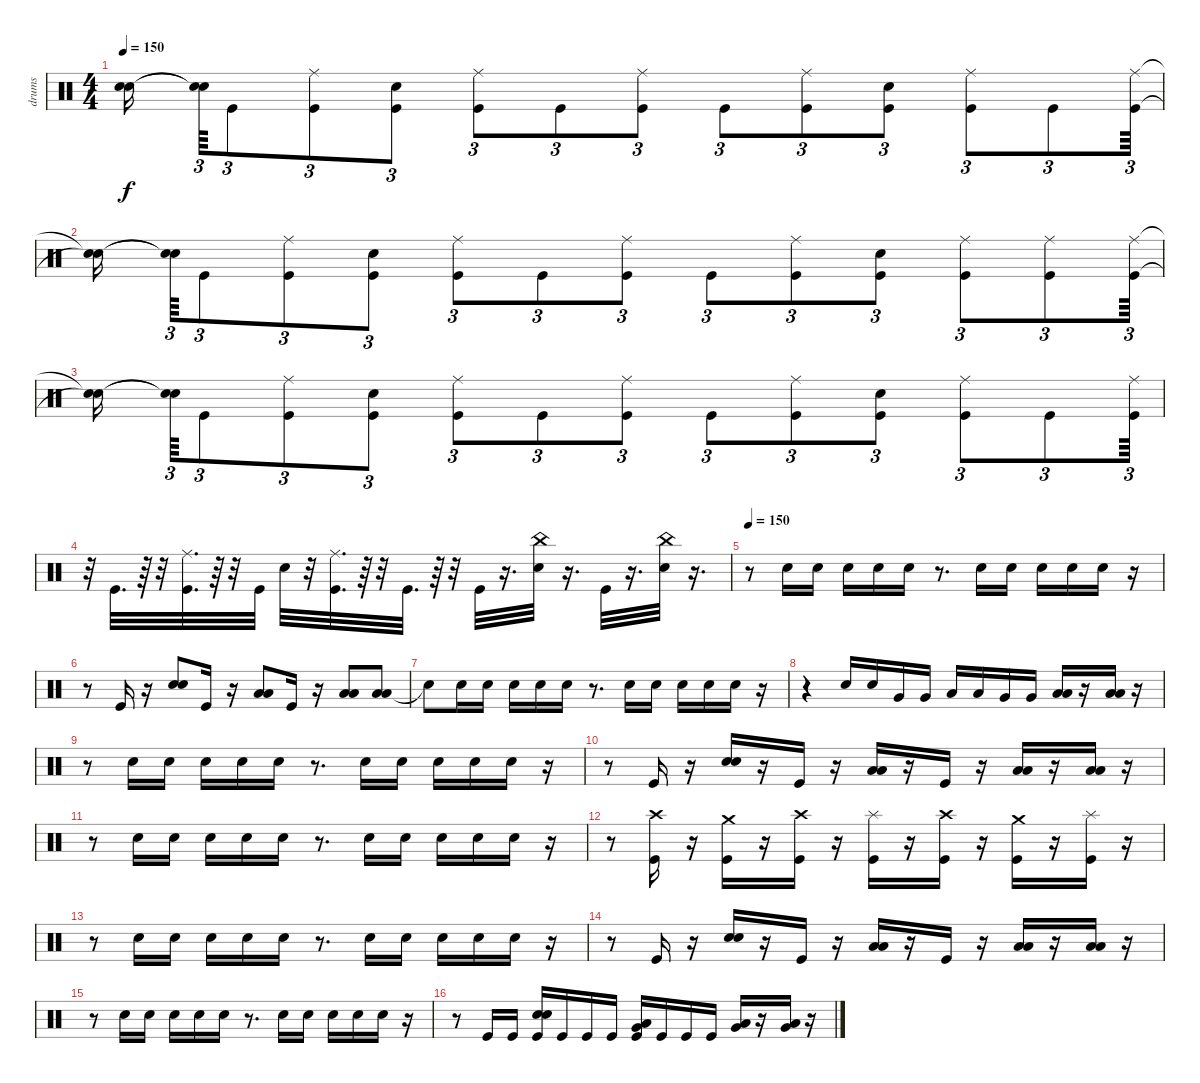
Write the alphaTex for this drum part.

\track ("drums" "drums") {instrument percussion}
\staff {score}
\articulation defaults
\ts (4 4)
\tempo 150
\clef neutral
\ks c
("Snare (hit)"{t} "Snare (hit)"{t}).16{dy f} ("Snare (hit)"{t} "Snare (hit)"{t}).64{tu (3 2)} "Kick (hit)".8{tu (3 2)} ("Ride (middle)" "Kick (hit)").8{tu (3 2)} ("Kick (hit)" "Electric Snare (hit)").8{tu (3 2)} ("Ride (middle)" "Kick (hit)").8{tu (3 2)} "Kick (hit)".8{tu (3 2)} ("Ride (middle)" "Kick (hit)").8{tu (3 2)} "Kick (hit)".8{tu (3 2)} ("Ride (middle)" "Kick (hit)").8{tu (3 2)} ("Kick (hit)" "Electric Snare (hit)").8{tu (3 2)} ("Ride (middle)" "Kick (hit)").8{tu (3 2)} "Kick (hit)".8{tu (3 2)} ("Ride (middle)" "Kick (hit)").64{tu (3 2)} |
("Snare (hit)"{t} "Snare (hit)"{t}).16 ("Snare (hit)"{t} "Snare (hit)"{t}).64{tu (3 2)} "Kick (hit)".8{tu (3 2)} ("Ride (middle)" "Kick (hit)").8{tu (3 2)} ("Kick (hit)" "Electric Snare (hit)").8{tu (3 2)} ("Ride (middle)" "Kick (hit)").8{tu (3 2)} "Kick (hit)".8{tu (3 2)} ("Ride (middle)" "Kick (hit)").8{tu (3 2)} "Kick (hit)".8{tu (3 2)} ("Ride (middle)" "Kick (hit)").8{tu (3 2)} ("Kick (hit)" "Electric Snare (hit)").8{tu (3 2)} ("Ride (middle)" "Kick (hit)").8{tu (3 2)} ("Ride (middle)" "Kick (hit)").8{tu (3 2)} ("Kick (hit)" "Ride (middle)").64{tu (3 2)} |
("Snare (hit)"{t} "Snare (hit)"{t}).16 ("Snare (hit)"{t} "Snare (hit)"{t}).64{tu (3 2)} "Kick (hit)".8{tu (3 2)} ("Kick (hit)" "Ride (middle)").8{tu (3 2)} ("Kick (hit)" "Electric Snare (hit)").8{tu (3 2)} ("Ride (middle)" "Kick (hit)").8{tu (3 2)} "Kick (hit)".8{tu (3 2)} ("Ride (middle)" "Kick (hit)").8{tu (3 2)} "Kick (hit)".8{tu (3 2)} ("Ride (middle)" "Kick (hit)").8{tu (3 2)} ("Kick (hit)" "Electric Snare (hit)").8{tu (3 2)} ("Ride (middle)" "Kick (hit)").8{tu (3 2)} "Kick (hit)".8{tu (3 2)} ("Kick (hit)" "Ride (middle)").64{tu (3 2)} |
r.32 "Kick (hit)".32{d} r.64 r.32 ("Kick (hit)" "Ride (middle)").32{d} r.64 r.32 "Kick (hit)".32 "Electric Snare (hit)".32 r.32 ("Ride (middle)" "Kick (hit)").32{d} r.64 r.32 "Kick (hit)".32{d} r.64 r.32 "Kick (hit)".32 r.16{d} ("China (hit)" "Electric Snare (hit)").32 r.16{d} "Kick (hit)".32 r.16{d} ("China (hit)" "Electric Snare (hit)").32 r.16{d} |
\tempo 150
r.8 "Electric Snare (hit)".16 "Electric Snare (hit)".16 "Electric Snare (hit)".16 "Electric Snare (hit)".16 "Electric Snare (hit)".16 r.8{d} "Electric Snare (hit)".16 "Electric Snare (hit)".16 "Electric Snare (hit)".16 "Electric Snare (hit)".16 "Electric Snare (hit)".16 r.16 |
r.8 "Kick (hit)".16 r.16 ("Electric Snare (hit)" "Electric Snare (hit)").8 "Kick (hit)".16 r.16 ("Low Tom (hit)" "Low Tom (hit)").8 "Kick (hit)".16 r.16 ("Low Floor Tom (hit)" "Low Floor Tom (hit)").8 ("Low Floor Tom (hit)" "Low Floor Tom (hit)").8 |
"Snare (hit)"{t}.8 "Electric Snare (hit)".16 "Electric Snare (hit)".16 "Electric Snare (hit)".16 "Electric Snare (hit)".16 "Electric Snare (hit)".16 r.8{d} "Electric Snare (hit)".16 "Electric Snare (hit)".16 "Electric Snare (hit)".16 "Electric Snare (hit)".16 "Electric Snare (hit)".16 r.16 |
r.4 "Electric Snare (hit)".16 "Electric Snare (hit)".16 "Very Low Tom (hit)".16 "Very Low Tom (hit)".16 "Low Tom (hit)".16 "Low Tom (hit)".16 "Very Low Tom (hit)".16 "Very Low Tom (hit)".16 ("Low Floor Tom (hit)" "Low Floor Tom (hit)").16 r.16 ("Low Floor Tom (hit)" "Low Floor Tom (hit)").16 r.16 |
r.8 "Electric Snare (hit)".16 "Electric Snare (hit)".16 "Electric Snare (hit)".16 "Electric Snare (hit)".16 "Electric Snare (hit)".16 r.8{d} "Electric Snare (hit)".16 "Electric Snare (hit)".16 "Electric Snare (hit)".16 "Electric Snare (hit)".16 "Electric Snare (hit)".16 r.16 |
r.8 "Kick (hit)".16 r.16 ("Electric Snare (hit)" "Electric Snare (hit)").16 r.16 "Kick (hit)".16 r.16 ("Low Tom (hit)" "Low Tom (hit)").16 r.16 "Kick (hit)".16 r.16 ("Low Floor Tom (hit)" "Low Floor Tom (hit)").16 r.16 ("Low Floor Tom (hit)" "Low Floor Tom (hit)").16 r.16 |
r.8 "Electric Snare (hit)".16 "Electric Snare (hit)".16 "Electric Snare (hit)".16 "Electric Snare (hit)".16 "Electric Snare (hit)".16 r.8{d} "Electric Snare (hit)".16 "Electric Snare (hit)".16 "Electric Snare (hit)".16 "Electric Snare (hit)".16 "Electric Snare (hit)".16 r.16 |
r.8 ("Kick (hit)" "Crash high (hit)").16 r.16 ("Kick (hit)" "Crash medium (hit)").16 r.16 ("Kick (hit)" "Crash high (hit)").16 r.16 ("Kick (hit)" "Splash (hit)").16 r.16 ("Kick (hit)" "Crash high (hit)").16 r.16 ("Kick (hit)" "Crash medium (hit)").16 r.16 ("Kick (hit)" "Splash (hit)").16 r.16 |
r.8 "Electric Snare (hit)".16 "Electric Snare (hit)".16 "Electric Snare (hit)".16 "Electric Snare (hit)".16 "Electric Snare (hit)".16 r.8{d} "Electric Snare (hit)".16 "Electric Snare (hit)".16 "Electric Snare (hit)".16 "Electric Snare (hit)".16 "Electric Snare (hit)".16 r.16 |
r.8 "Kick (hit)".16 r.16 ("Electric Snare (hit)" "Electric Snare (hit)").16 r.16 "Kick (hit)".16 r.16 ("Low Tom (hit)" "Low Tom (hit)").16 r.16 "Kick (hit)".16 r.16 ("Low Floor Tom (hit)" "Low Floor Tom (hit)").16 r.16 ("Low Floor Tom (hit)" "Low Floor Tom (hit)").16 r.16 |
r.8 "Electric Snare (hit)".16 "Electric Snare (hit)".16 "Electric Snare (hit)".16 "Electric Snare (hit)".16 "Electric Snare (hit)".16 r.8{d} "Electric Snare (hit)".16 "Electric Snare (hit)".16 "Electric Snare (hit)".16 "Electric Snare (hit)".16 "Electric Snare (hit)".16 r.16 |
r.8 "Kick (hit)".16 "Kick (hit)".16 ("Electric Snare (hit)" "Kick (hit)" "Electric Snare (hit)").16 "Kick (hit)".16 "Kick (hit)".16 "Kick (hit)".16 ("Low Tom (hit)" "Kick (hit)" "Very Low Tom (hit)").16 "Kick (hit)".16 "Kick (hit)".16 "Kick (hit)".16 ("Low Floor Tom (hit)" "Very Low Tom (hit)").16 r.16 ("Low Floor Tom (hit)" "Very Low Tom (hit)").16 r.16
